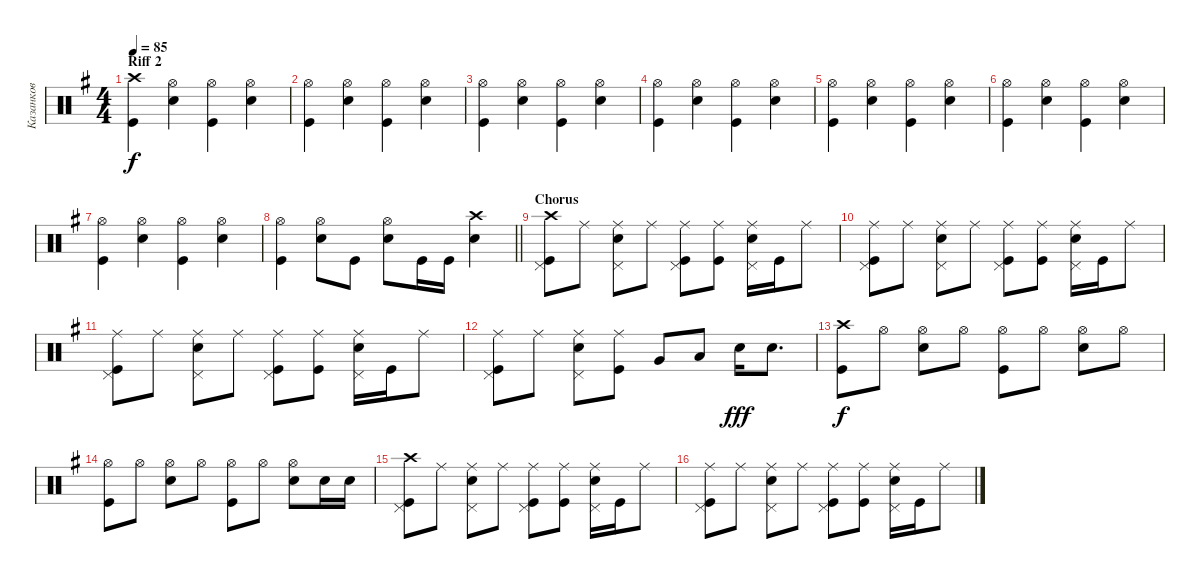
\track ("Казанков" "Казанков") {instrument percussion}
\staff {score}
\articulation defaults
\ts (4 4)
\section ("" "Riff 2")
\tempo 85
\clef neutral
\ks eminor
("Crash high (hit)" "Kick (hit)").4{dy f} ("Hi-Hat (open)" "Snare (hit) 2").4 ("Hi-Hat (open)" "Kick (hit)").4 ("Hi-Hat (open)" "Snare (hit) 2").4 |
("Hi-Hat (open)" "Kick (hit)").4 ("Hi-Hat (open)" "Snare (hit) 2").4 ("Hi-Hat (open)" "Kick (hit)").4 ("Hi-Hat (open)" "Snare (hit) 2").4 |
("Hi-Hat (open)" "Kick (hit)").4 ("Hi-Hat (open)" "Snare (hit) 2").4 ("Hi-Hat (open)" "Kick (hit)").4 ("Hi-Hat (open)" "Snare (hit) 2").4 |
("Hi-Hat (open)" "Kick (hit)").4 ("Hi-Hat (open)" "Snare (hit) 2").4 ("Hi-Hat (open)" "Kick (hit)").4 ("Hi-Hat (open)" "Snare (hit) 2").4 |
("Hi-Hat (open)" "Kick (hit)").4 ("Hi-Hat (open)" "Snare (hit) 2").4 ("Hi-Hat (open)" "Kick (hit)").4 ("Hi-Hat (open)" "Snare (hit) 2").4 |
("Hi-Hat (open)" "Kick (hit)").4 ("Hi-Hat (open)" "Snare (hit) 2").4 ("Hi-Hat (open)" "Kick (hit)").4 ("Hi-Hat (open)" "Snare (hit) 2").4 |
("Hi-Hat (open)" "Kick (hit)").4 ("Hi-Hat (open)" "Snare (hit) 2").4 ("Hi-Hat (open)" "Kick (hit)").4 ("Hi-Hat (open)" "Snare (hit) 2").4 |
\barLineRight lightlight
("Hi-Hat (open)" "Kick (hit)").4 ("Hi-Hat (open)" "Snare (hit) 2").8 "Kick (hit)".8 ("Hi-Hat (open)" "Snare (hit) 2").8 "Kick (hit)".16 "Kick (hit)".16 ("Crash high (hit)" "Snare (hit) 2").4 |
\section ("" "Chorus")
("Kick (hit)" "Crash high (hit)" "Pedal Hi-Hat (hit)").8 "Ride (middle)".8 ("Ride (middle)" "Snare (hit) 2" "Pedal Hi-Hat (hit)").8 "Ride (middle)".8 ("Ride (middle)" "Kick (hit)" "Pedal Hi-Hat (hit)").8 ("Kick (hit)" "Ride (middle)").8 ("Snare (hit) 2" "Ride (middle)" "Pedal Hi-Hat (hit)").16 "Kick (hit)".16 "Ride (middle)".8 |
("Kick (hit)" "Ride (middle)" "Pedal Hi-Hat (hit)").8 "Ride (middle)".8 ("Ride (middle)" "Snare (hit) 2" "Pedal Hi-Hat (hit)").8 "Ride (middle)".8 ("Ride (middle)" "Kick (hit)" "Pedal Hi-Hat (hit)").8 ("Kick (hit)" "Ride (middle)").8 ("Snare (hit) 2" "Ride (middle)" "Pedal Hi-Hat (hit)").16 "Kick (hit)".16 "Ride (middle)".8 |
("Kick (hit)" "Ride (middle)" "Pedal Hi-Hat (hit)").8 "Ride (middle)".8 ("Ride (middle)" "Snare (hit) 2" "Pedal Hi-Hat (hit)").8 "Ride (middle)".8 ("Ride (middle)" "Kick (hit)" "Pedal Hi-Hat (hit)").8 ("Kick (hit)" "Ride (middle)").8 ("Snare (hit) 2" "Ride (middle)" "Pedal Hi-Hat (hit)").16 "Kick (hit)".16 "Ride (middle)".8 |
("Kick (hit)" "Ride (middle)" "Pedal Hi-Hat (hit)").8 "Ride (middle)".8 ("Ride (middle)" "Snare (hit) 2" "Pedal Hi-Hat (hit)").8 ("Ride (middle)" "Kick (hit)").8 "Very Low Tom (hit)".8 "Low Floor Tom (hit)".8 "Snare (hit) 2".16{dy fff} "Snare (hit) 2".8{d} |
("Crash high (hit)" "Kick (hit)").8{dy f} "Hi-Hat (open)".8 ("Hi-Hat (open)" "Snare (hit) 2").8 "Hi-Hat (open)".8 ("Hi-Hat (open)" "Kick (hit)").8 "Hi-Hat (open)".8 ("Hi-Hat (open)" "Snare (hit) 2").8 "Hi-Hat (open)".8 |
("Hi-Hat (open)" "Kick (hit)").8 "Hi-Hat (open)".8 ("Hi-Hat (open)" "Snare (hit) 2").8 "Hi-Hat (open)".8 ("Hi-Hat (open)" "Kick (hit)").8 "Hi-Hat (open)".8 ("Hi-Hat (open)" "Snare (hit) 2").8 "Snare (hit) 2".16 "Snare (hit) 2".16 |
("Kick (hit)" "Crash high (hit)" "Pedal Hi-Hat (hit)").8 "Ride (middle)".8 ("Ride (middle)" "Snare (hit) 2" "Pedal Hi-Hat (hit)").8 "Ride (middle)".8 ("Ride (middle)" "Kick (hit)" "Pedal Hi-Hat (hit)").8 ("Kick (hit)" "Ride (middle)").8 ("Snare (hit) 2" "Ride (middle)" "Pedal Hi-Hat (hit)").16 "Kick (hit)".16 "Ride (middle)".8 |
("Kick (hit)" "Ride (middle)" "Pedal Hi-Hat (hit)").8 "Ride (middle)".8 ("Ride (middle)" "Snare (hit) 2" "Pedal Hi-Hat (hit)").8 "Ride (middle)".8 ("Ride (middle)" "Kick (hit)" "Pedal Hi-Hat (hit)").8 ("Kick (hit)" "Ride (middle)").8 ("Snare (hit) 2" "Ride (middle)" "Pedal Hi-Hat (hit)").16 "Kick (hit)".16 "Ride (middle)".8
